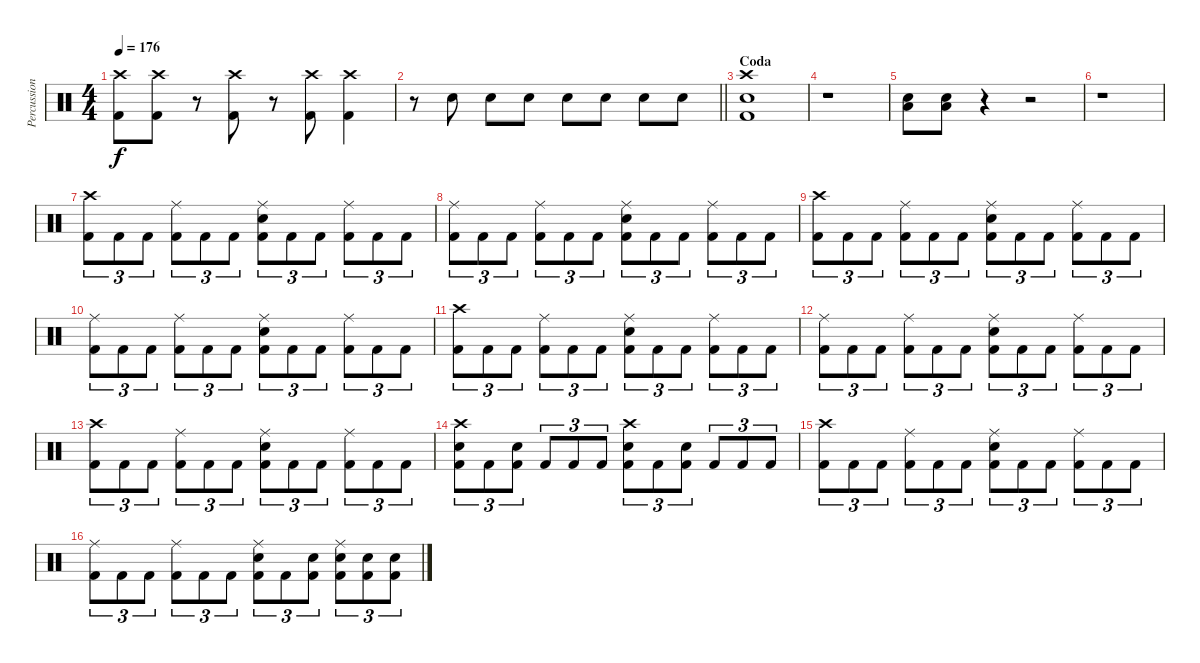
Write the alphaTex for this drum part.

\track ("Percussion" "Percussion") {instrument percussion}
\staff {score}
\articulation defaults
\ts (4 4)
\tempo 176
\clef neutral
\ks c
("Crash high (hit)" "Kick (hit) 2").8{dy f} ("Crash high (hit)" "Kick (hit) 2").8 r.8 ("Crash high (hit)" "Kick (hit) 2").8 r.8 ("Crash high (hit)" "Kick (hit) 2").8 ("Crash high (hit)" "Kick (hit) 2").4 |
\barLineRight lightlight
r.8 "Snare (hit) 2".8 "Snare (hit) 2".8 "Snare (hit) 2".8 "Snare (hit) 2".8 "Snare (hit) 2".8 "Snare (hit) 2".8 "Snare (hit) 2".8 |
\section ("" "Coda")
("Crash high (hit)" "Snare (hit) 2" "Kick (hit) 2").1 |
r.1 |
("Snare (hit) 2" "Low Floor Tom (hit)").8 ("Snare (hit) 2" "Low Floor Tom (hit)").8 r.4 r.2 |
r.1 |
("Crash high (hit)" "Kick (hit) 2").8{tu (3 2)} "Kick (hit) 2".8{tu (3 2)} "Kick (hit) 2".8{tu (3 2)} ("Ride (middle)" "Kick (hit) 2").8{tu (3 2)} "Kick (hit) 2".8{tu (3 2)} "Kick (hit) 2".8{tu (3 2)} ("Ride (middle)" "Snare (hit) 2" "Kick (hit) 2").8{tu (3 2)} "Kick (hit) 2".8{tu (3 2)} "Kick (hit) 2".8{tu (3 2)} ("Ride (middle)" "Kick (hit) 2").8{tu (3 2)} "Kick (hit) 2".8{tu (3 2)} "Kick (hit) 2".8{tu (3 2)} |
("Ride (middle)" "Kick (hit) 2").8{tu (3 2)} "Kick (hit) 2".8{tu (3 2)} "Kick (hit) 2".8{tu (3 2)} ("Ride (middle)" "Kick (hit) 2").8{tu (3 2)} "Kick (hit) 2".8{tu (3 2)} "Kick (hit) 2".8{tu (3 2)} ("Ride (middle)" "Snare (hit) 2" "Kick (hit) 2").8{tu (3 2)} "Kick (hit) 2".8{tu (3 2)} "Kick (hit) 2".8{tu (3 2)} ("Ride (middle)" "Kick (hit) 2").8{tu (3 2)} "Kick (hit) 2".8{tu (3 2)} "Kick (hit) 2".8{tu (3 2)} |
("Crash high (hit)" "Kick (hit) 2").8{tu (3 2)} "Kick (hit) 2".8{tu (3 2)} "Kick (hit) 2".8{tu (3 2)} ("Ride (middle)" "Kick (hit) 2").8{tu (3 2)} "Kick (hit) 2".8{tu (3 2)} "Kick (hit) 2".8{tu (3 2)} ("Ride (middle)" "Snare (hit) 2" "Kick (hit) 2").8{tu (3 2)} "Kick (hit) 2".8{tu (3 2)} "Kick (hit) 2".8{tu (3 2)} ("Ride (middle)" "Kick (hit) 2").8{tu (3 2)} "Kick (hit) 2".8{tu (3 2)} "Kick (hit) 2".8{tu (3 2)} |
("Ride (middle)" "Kick (hit) 2").8{tu (3 2)} "Kick (hit) 2".8{tu (3 2)} "Kick (hit) 2".8{tu (3 2)} ("Ride (middle)" "Kick (hit) 2").8{tu (3 2)} "Kick (hit) 2".8{tu (3 2)} "Kick (hit) 2".8{tu (3 2)} ("Ride (middle)" "Snare (hit) 2" "Kick (hit) 2").8{tu (3 2)} "Kick (hit) 2".8{tu (3 2)} "Kick (hit) 2".8{tu (3 2)} ("Ride (middle)" "Kick (hit) 2").8{tu (3 2)} "Kick (hit) 2".8{tu (3 2)} "Kick (hit) 2".8{tu (3 2)} |
("Crash high (hit)" "Kick (hit) 2").8{tu (3 2)} "Kick (hit) 2".8{tu (3 2)} "Kick (hit) 2".8{tu (3 2)} ("Ride (middle)" "Kick (hit) 2").8{tu (3 2)} "Kick (hit) 2".8{tu (3 2)} "Kick (hit) 2".8{tu (3 2)} ("Ride (middle)" "Snare (hit) 2" "Kick (hit) 2").8{tu (3 2)} "Kick (hit) 2".8{tu (3 2)} "Kick (hit) 2".8{tu (3 2)} ("Ride (middle)" "Kick (hit) 2").8{tu (3 2)} "Kick (hit) 2".8{tu (3 2)} "Kick (hit) 2".8{tu (3 2)} |
("Ride (middle)" "Kick (hit) 2").8{tu (3 2)} "Kick (hit) 2".8{tu (3 2)} "Kick (hit) 2".8{tu (3 2)} ("Ride (middle)" "Kick (hit) 2").8{tu (3 2)} "Kick (hit) 2".8{tu (3 2)} "Kick (hit) 2".8{tu (3 2)} ("Ride (middle)" "Snare (hit) 2" "Kick (hit) 2").8{tu (3 2)} "Kick (hit) 2".8{tu (3 2)} "Kick (hit) 2".8{tu (3 2)} ("Ride (middle)" "Kick (hit) 2").8{tu (3 2)} "Kick (hit) 2".8{tu (3 2)} "Kick (hit) 2".8{tu (3 2)} |
("Crash high (hit)" "Kick (hit) 2").8{tu (3 2)} "Kick (hit) 2".8{tu (3 2)} "Kick (hit) 2".8{tu (3 2)} ("Ride (middle)" "Kick (hit) 2").8{tu (3 2)} "Kick (hit) 2".8{tu (3 2)} "Kick (hit) 2".8{tu (3 2)} ("Ride (middle)" "Snare (hit) 2" "Kick (hit) 2").8{tu (3 2)} "Kick (hit) 2".8{tu (3 2)} "Kick (hit) 2".8{tu (3 2)} ("Ride (middle)" "Kick (hit) 2").8{tu (3 2)} "Kick (hit) 2".8{tu (3 2)} "Kick (hit) 2".8{tu (3 2)} |
("Crash high (hit)" "Snare (hit) 2" "Kick (hit) 2").8{tu (3 2)} "Kick (hit) 2".8{tu (3 2)} ("Snare (hit) 2" "Kick (hit) 2").8{tu (3 2)} "Kick (hit) 2".8{tu (3 2)} "Kick (hit) 2".8{tu (3 2)} "Kick (hit) 2".8{tu (3 2)} ("Crash high (hit)" "Snare (hit) 2" "Kick (hit) 2").8{tu (3 2)} "Kick (hit) 2".8{tu (3 2)} ("Snare (hit) 2" "Kick (hit) 2").8{tu (3 2)} "Kick (hit) 2".8{tu (3 2)} "Kick (hit) 2".8{tu (3 2)} "Kick (hit) 2".8{tu (3 2)} |
("Crash high (hit)" "Kick (hit) 2").8{tu (3 2)} "Kick (hit) 2".8{tu (3 2)} "Kick (hit) 2".8{tu (3 2)} ("Ride (middle)" "Kick (hit) 2").8{tu (3 2)} "Kick (hit) 2".8{tu (3 2)} "Kick (hit) 2".8{tu (3 2)} ("Ride (middle)" "Snare (hit) 2" "Kick (hit) 2").8{tu (3 2)} "Kick (hit) 2".8{tu (3 2)} "Kick (hit) 2".8{tu (3 2)} ("Ride (middle)" "Kick (hit) 2").8{tu (3 2)} "Kick (hit) 2".8{tu (3 2)} "Kick (hit) 2".8{tu (3 2)} |
("Ride (middle)" "Kick (hit) 2").8{tu (3 2)} "Kick (hit) 2".8{tu (3 2)} "Kick (hit) 2".8{tu (3 2)} ("Ride (middle)" "Kick (hit) 2").8{tu (3 2)} "Kick (hit) 2".8{tu (3 2)} "Kick (hit) 2".8{tu (3 2)} ("Ride (middle)" "Snare (hit) 2" "Kick (hit) 2").8{tu (3 2)} "Kick (hit) 2".8{tu (3 2)} ("Snare (hit) 2" "Kick (hit) 2").8{tu (3 2)} ("Ride (middle)" "Snare (hit) 2" "Kick (hit) 2").8{tu (3 2)} ("Snare (hit) 2" "Kick (hit) 2").8{tu (3 2)} ("Snare (hit) 2" "Kick (hit) 2").8{tu (3 2)}
